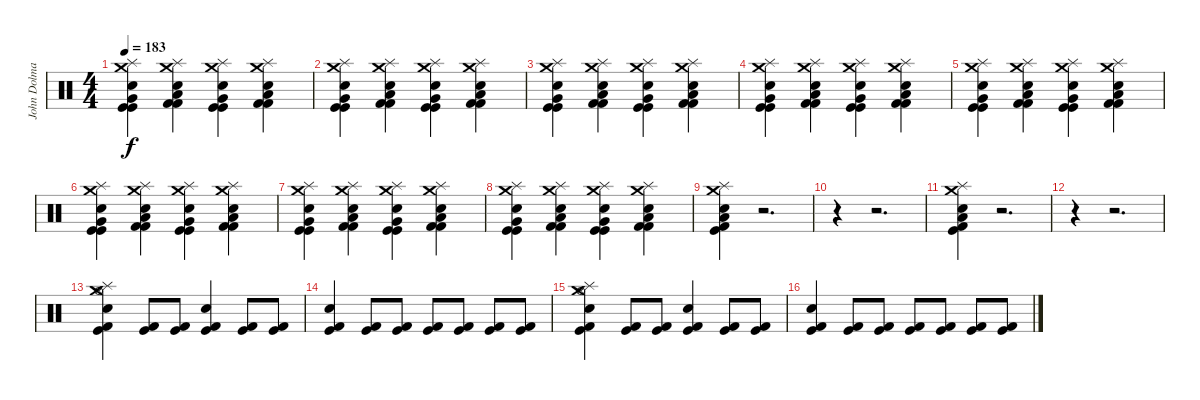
\track ("John Dolmayan" "John Dolma") {instrument percussion}
\staff {score}
\articulation defaults
\ts (4 4)
\tempo 183
\clef neutral
\ks c
("Crash medium (hit)" "Kick (hit)" "Kick (hit)" "Electric Snare (hit)" "Very Low Tom (hit)" "Splash (hit)").4{dy f} ("Crash medium (hit)" "Kick (hit) 2" "Kick (hit) 2" "Electric Snare (hit)" "Low Tom (hit)" "Splash (hit)").4 ("Crash medium (hit)" "Kick (hit)" "Kick (hit)" "Electric Snare (hit)" "Very Low Tom (hit)" "Splash (hit)").4 ("Crash medium (hit)" "Kick (hit) 2" "Kick (hit) 2" "Electric Snare (hit)" "Low Tom (hit)" "Splash (hit)").4 |
("Crash medium (hit)" "Kick (hit)" "Kick (hit)" "Electric Snare (hit)" "Very Low Tom (hit)" "Splash (hit)").4 ("Crash medium (hit)" "Kick (hit) 2" "Kick (hit) 2" "Electric Snare (hit)" "Low Tom (hit)" "Splash (hit)").4 ("Crash medium (hit)" "Kick (hit)" "Kick (hit)" "Electric Snare (hit)" "Very Low Tom (hit)" "Splash (hit)").4 ("Crash medium (hit)" "Kick (hit) 2" "Kick (hit) 2" "Electric Snare (hit)" "Low Tom (hit)" "Splash (hit)").4 |
("Crash medium (hit)" "Kick (hit)" "Kick (hit)" "Electric Snare (hit)" "Very Low Tom (hit)" "Splash (hit)").4 ("Crash medium (hit)" "Kick (hit) 2" "Kick (hit) 2" "Electric Snare (hit)" "Low Tom (hit)" "Splash (hit)").4 ("Crash medium (hit)" "Kick (hit)" "Kick (hit)" "Electric Snare (hit)" "Very Low Tom (hit)" "Splash (hit)").4 ("Crash medium (hit)" "Kick (hit) 2" "Kick (hit) 2" "Electric Snare (hit)" "Low Tom (hit)" "Splash (hit)").4 |
("Crash medium (hit)" "Kick (hit)" "Kick (hit)" "Electric Snare (hit)" "Very Low Tom (hit)" "Splash (hit)").4 ("Crash medium (hit)" "Kick (hit) 2" "Kick (hit) 2" "Electric Snare (hit)" "Low Tom (hit)" "Splash (hit)").4 ("Crash medium (hit)" "Kick (hit)" "Kick (hit)" "Electric Snare (hit)" "Very Low Tom (hit)" "Splash (hit)").4 ("Crash medium (hit)" "Kick (hit) 2" "Kick (hit) 2" "Electric Snare (hit)" "Low Tom (hit)" "Splash (hit)").4 |
("Crash medium (hit)" "Kick (hit)" "Kick (hit)" "Electric Snare (hit)" "Very Low Tom (hit)" "Splash (hit)").4 ("Crash medium (hit)" "Kick (hit) 2" "Kick (hit) 2" "Electric Snare (hit)" "Low Tom (hit)" "Splash (hit)").4 ("Crash medium (hit)" "Kick (hit)" "Kick (hit)" "Electric Snare (hit)" "Very Low Tom (hit)" "Splash (hit)").4 ("Crash medium (hit)" "Kick (hit) 2" "Kick (hit) 2" "Electric Snare (hit)" "Low Tom (hit)" "Splash (hit)").4 |
("Crash medium (hit)" "Kick (hit)" "Kick (hit)" "Electric Snare (hit)" "Very Low Tom (hit)" "Splash (hit)").4 ("Crash medium (hit)" "Kick (hit) 2" "Kick (hit) 2" "Electric Snare (hit)" "Low Tom (hit)" "Splash (hit)").4 ("Crash medium (hit)" "Kick (hit)" "Kick (hit)" "Electric Snare (hit)" "Very Low Tom (hit)" "Splash (hit)").4 ("Crash medium (hit)" "Kick (hit) 2" "Kick (hit) 2" "Electric Snare (hit)" "Low Tom (hit)" "Splash (hit)").4 |
("Crash medium (hit)" "Kick (hit)" "Kick (hit)" "Electric Snare (hit)" "Very Low Tom (hit)" "Splash (hit)").4 ("Crash medium (hit)" "Kick (hit) 2" "Kick (hit) 2" "Electric Snare (hit)" "Low Tom (hit)" "Splash (hit)").4 ("Crash medium (hit)" "Kick (hit)" "Kick (hit)" "Electric Snare (hit)" "Very Low Tom (hit)" "Splash (hit)").4 ("Crash medium (hit)" "Kick (hit) 2" "Kick (hit) 2" "Electric Snare (hit)" "Low Tom (hit)" "Splash (hit)").4 |
("Crash medium (hit)" "Kick (hit)" "Kick (hit)" "Electric Snare (hit)" "Very Low Tom (hit)" "Splash (hit)").4 ("Crash medium (hit)" "Kick (hit) 2" "Kick (hit) 2" "Electric Snare (hit)" "Low Tom (hit)" "Splash (hit)").4 ("Crash medium (hit)" "Kick (hit)" "Kick (hit)" "Electric Snare (hit)" "Very Low Tom (hit)" "Splash (hit)").4 ("Crash medium (hit)" "Kick (hit) 2" "Kick (hit) 2" "Electric Snare (hit)" "Low Tom (hit)" "Splash (hit)").4 |
("Crash medium (hit)" "Kick (hit) 2" "Kick (hit)" "Electric Snare (hit)" "Low Tom (hit)" "Splash (hit)").4 r.2{d} |
r.4 r.2{d} |
("Crash medium (hit)" "Kick (hit) 2" "Kick (hit)" "Electric Snare (hit)" "Low Tom (hit)" "Splash (hit)").4 r.2{d} |
r.4 r.2{d} |
("Hi-Hat (open)" "Crash medium (hit)" "Splash (hit)" "Kick (hit)" "Kick (hit) 2" "Electric Snare (hit)").4 ("Kick (hit) 2" "Kick (hit)").8 ("Kick (hit) 2" "Kick (hit)").8 ("Kick (hit) 2" "Kick (hit)" "Electric Snare (hit)").4 ("Kick (hit) 2" "Kick (hit)").8 ("Kick (hit) 2" "Kick (hit)").8 |
("Kick (hit) 2" "Kick (hit)" "Electric Snare (hit)").4 ("Kick (hit) 2" "Kick (hit)").8 ("Kick (hit) 2" "Kick (hit)").8 ("Kick (hit) 2" "Kick (hit)").8 ("Kick (hit) 2" "Kick (hit)").8 ("Kick (hit) 2" "Kick (hit)").8 ("Kick (hit) 2" "Kick (hit)").8 |
("Hi-Hat (open)" "Crash medium (hit)" "Splash (hit)" "Kick (hit)" "Kick (hit) 2" "Electric Snare (hit)").4 ("Kick (hit) 2" "Kick (hit)").8 ("Kick (hit) 2" "Kick (hit)").8 ("Kick (hit) 2" "Kick (hit)" "Electric Snare (hit)").4 ("Kick (hit) 2" "Kick (hit)").8 ("Kick (hit) 2" "Kick (hit)").8 |
("Kick (hit) 2" "Kick (hit)" "Electric Snare (hit)").4 ("Kick (hit) 2" "Kick (hit)").8 ("Kick (hit) 2" "Kick (hit)").8 ("Kick (hit) 2" "Kick (hit)").8 ("Kick (hit) 2" "Kick (hit)").8 ("Kick (hit) 2" "Kick (hit)").8 ("Kick (hit) 2" "Kick (hit)").8
